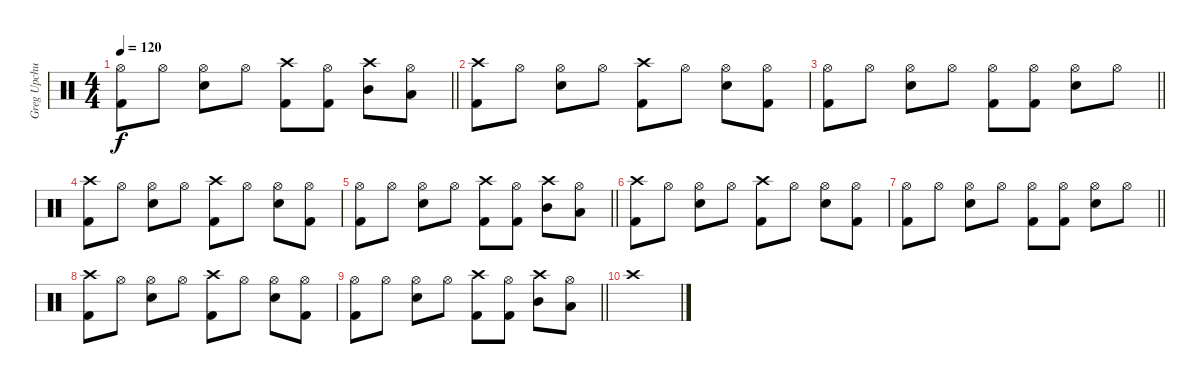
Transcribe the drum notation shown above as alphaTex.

\track ("Greg Upchurch(drums)" "Greg Upchu") {instrument percussion}
\staff {score}
\articulation defaults
\ts (4 4)
\tempo 120
\clef neutral
\barLineRight lightlight
\ks c
("Hi-Hat (open)" "Kick (hit) 2").8{dy f} "Hi-Hat (open)".8 ("Hi-Hat (open)" "Snare (hit) 2").8 "Hi-Hat (open)".8 ("Crash high (hit)" "Kick (hit) 2").8 ("Hi-Hat (open)" "Kick (hit) 2").8 ("Crash high (hit)" "Mid Tom (hit)").8 ("Hi-Hat (open)" "Low Tom (hit)").8 |
("Crash high (hit)" "Kick (hit) 2").8 "Hi-Hat (open)".8 ("Hi-Hat (open)" "Snare (hit) 2").8 "Hi-Hat (open)".8 ("Crash high (hit)" "Kick (hit) 2").8 "Hi-Hat (open)".8 ("Hi-Hat (open)" "Snare (hit) 2").8 ("Hi-Hat (open)" "Kick (hit) 2").8 |
\barLineRight lightlight
("Hi-Hat (open)" "Kick (hit) 2").8 "Hi-Hat (open)".8 ("Hi-Hat (open)" "Snare (hit) 2").8 "Hi-Hat (open)".8 ("Hi-Hat (open)" "Kick (hit) 2").8 ("Hi-Hat (open)" "Kick (hit) 2").8 ("Hi-Hat (open)" "Snare (hit) 2").8 "Hi-Hat (open)".8 |
("Crash high (hit)" "Kick (hit) 2").8 "Hi-Hat (open)".8 ("Hi-Hat (open)" "Snare (hit) 2").8 "Hi-Hat (open)".8 ("Crash high (hit)" "Kick (hit) 2").8 "Hi-Hat (open)".8 ("Hi-Hat (open)" "Snare (hit) 2").8 ("Hi-Hat (open)" "Kick (hit) 2").8 |
\barLineRight lightlight
("Hi-Hat (open)" "Kick (hit) 2").8 "Hi-Hat (open)".8 ("Hi-Hat (open)" "Snare (hit) 2").8 "Hi-Hat (open)".8 ("Crash high (hit)" "Kick (hit) 2").8 ("Hi-Hat (open)" "Kick (hit) 2").8 ("Crash high (hit)" "Mid Tom (hit)").8 ("Hi-Hat (open)" "Low Tom (hit)").8 |
("Crash high (hit)" "Kick (hit) 2").8 "Hi-Hat (open)".8 ("Hi-Hat (open)" "Snare (hit) 2").8 "Hi-Hat (open)".8 ("Crash high (hit)" "Kick (hit) 2").8 "Hi-Hat (open)".8 ("Hi-Hat (open)" "Snare (hit) 2").8 ("Hi-Hat (open)" "Kick (hit) 2").8 |
\barLineRight lightlight
("Hi-Hat (open)" "Kick (hit) 2").8 "Hi-Hat (open)".8 ("Hi-Hat (open)" "Snare (hit) 2").8 "Hi-Hat (open)".8 ("Hi-Hat (open)" "Kick (hit) 2").8 ("Hi-Hat (open)" "Kick (hit) 2").8 ("Hi-Hat (open)" "Snare (hit) 2").8 "Hi-Hat (open)".8 |
("Crash high (hit)" "Kick (hit) 2").8 "Hi-Hat (open)".8 ("Hi-Hat (open)" "Snare (hit) 2").8 "Hi-Hat (open)".8 ("Crash high (hit)" "Kick (hit) 2").8 "Hi-Hat (open)".8 ("Hi-Hat (open)" "Snare (hit) 2").8 ("Hi-Hat (open)" "Kick (hit) 2").8 |
\barLineRight lightlight
("Hi-Hat (open)" "Kick (hit) 2").8 "Hi-Hat (open)".8 ("Hi-Hat (open)" "Snare (hit) 2").8 "Hi-Hat (open)".8 ("Crash high (hit)" "Kick (hit) 2").8 ("Hi-Hat (open)" "Kick (hit) 2").8 ("Crash high (hit)" "Mid Tom (hit)").8 ("Hi-Hat (open)" "Low Tom (hit)").8 |
"Crash high (hit)".1
